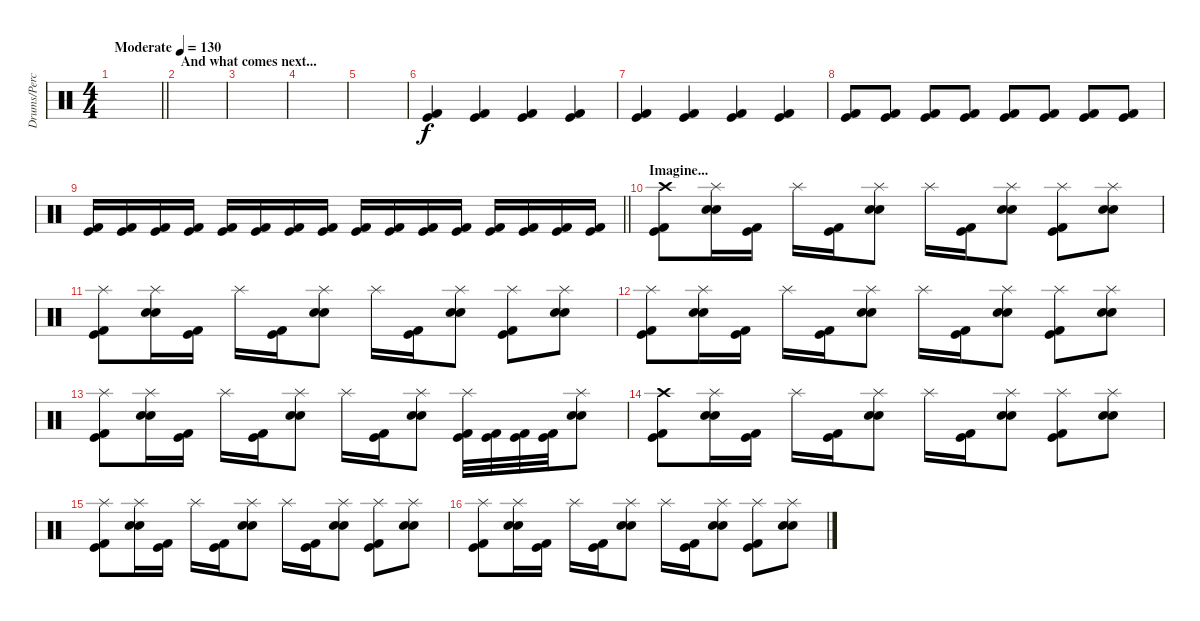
\track ("Drums/Percussion" "Drums/Perc") {instrument percussion}
\staff {score}
\articulation defaults
\ts (4 4)
\tempo (130 "Moderate")
\clef neutral
\barLineRight lightlight
\ks c
|
\section ("" "And what comes next...")
|
|
|
|
("Kick (hit)" "Kick (hit) 2").4 ("Kick (hit)" "Kick (hit) 2").4 ("Kick (hit)" "Kick (hit) 2").4 ("Kick (hit)" "Kick (hit) 2").4 |
("Kick (hit)" "Kick (hit) 2").4 ("Kick (hit)" "Kick (hit) 2").4 ("Kick (hit)" "Kick (hit) 2").4 ("Kick (hit)" "Kick (hit) 2").4 |
("Kick (hit)" "Kick (hit) 2").8 ("Kick (hit)" "Kick (hit) 2").8 ("Kick (hit)" "Kick (hit) 2").8 ("Kick (hit)" "Kick (hit) 2").8 ("Kick (hit)" "Kick (hit) 2").8 ("Kick (hit)" "Kick (hit) 2").8 ("Kick (hit)" "Kick (hit) 2").8 ("Kick (hit)" "Kick (hit) 2").8 |
\barLineRight lightlight
("Kick (hit)" "Kick (hit) 2").16 ("Kick (hit)" "Kick (hit) 2").16 ("Kick (hit)" "Kick (hit) 2").16 ("Kick (hit)" "Kick (hit) 2").16 ("Kick (hit)" "Kick (hit) 2").16 ("Kick (hit)" "Kick (hit) 2").16 ("Kick (hit)" "Kick (hit) 2").16 ("Kick (hit)" "Kick (hit) 2").16 ("Kick (hit)" "Kick (hit) 2").16 ("Kick (hit)" "Kick (hit) 2").16 ("Kick (hit)" "Kick (hit) 2").16 ("Kick (hit)" "Kick (hit) 2").16 ("Kick (hit)" "Kick (hit) 2").16 ("Kick (hit)" "Kick (hit) 2").16 ("Kick (hit)" "Kick (hit) 2").16 ("Kick (hit)" "Kick (hit) 2").16 |
\section ("" "Imagine...")
("Crash high (hit)" "Kick (hit)" "Kick (hit) 2").8 ("Splash (hit)" "Electric Snare (hit)" "Snare (hit) 2").16 ("Kick (hit)" "Kick (hit) 2").16 "Splash (hit)".16 ("Kick (hit)" "Kick (hit) 2").16 ("Splash (hit)" "Electric Snare (hit)" "Snare (hit) 2").8 "Splash (hit)".16 ("Kick (hit)" "Kick (hit) 2").16 ("Splash (hit)" "Electric Snare (hit)" "Snare (hit) 2").8 ("Splash (hit)" "Kick (hit)" "Kick (hit) 2").8 ("Splash (hit)" "Electric Snare (hit)" "Snare (hit) 2").8 |
("Splash (hit)" "Kick (hit)" "Kick (hit) 2").8 ("Splash (hit)" "Electric Snare (hit)" "Snare (hit) 2").16 ("Kick (hit)" "Kick (hit) 2").16 "Splash (hit)".16 ("Kick (hit)" "Kick (hit) 2").16 ("Splash (hit)" "Electric Snare (hit)" "Snare (hit) 2").8 "Splash (hit)".16 ("Kick (hit)" "Kick (hit) 2").16 ("Splash (hit)" "Electric Snare (hit)" "Snare (hit) 2").8 ("Splash (hit)" "Kick (hit)" "Kick (hit) 2").8 ("Splash (hit)" "Electric Snare (hit)" "Snare (hit) 2").8 |
("Splash (hit)" "Kick (hit)" "Kick (hit) 2").8 ("Splash (hit)" "Electric Snare (hit)" "Snare (hit) 2").16 ("Kick (hit)" "Kick (hit) 2").16 "Splash (hit)".16 ("Kick (hit)" "Kick (hit) 2").16 ("Splash (hit)" "Electric Snare (hit)" "Snare (hit) 2").8 "Splash (hit)".16 ("Kick (hit)" "Kick (hit) 2").16 ("Splash (hit)" "Electric Snare (hit)" "Snare (hit) 2").8 ("Splash (hit)" "Kick (hit)" "Kick (hit) 2").8 ("Splash (hit)" "Electric Snare (hit)" "Snare (hit) 2").8 |
("Splash (hit)" "Kick (hit)" "Kick (hit) 2").8 ("Splash (hit)" "Electric Snare (hit)" "Snare (hit) 2").16 ("Kick (hit)" "Kick (hit) 2").16 "Splash (hit)".16 ("Kick (hit)" "Kick (hit) 2").16 ("Splash (hit)" "Electric Snare (hit)" "Snare (hit) 2").8 "Splash (hit)".16 ("Kick (hit)" "Kick (hit) 2").16 ("Splash (hit)" "Electric Snare (hit)" "Snare (hit) 2").8 ("Splash (hit)" "Kick (hit)" "Kick (hit) 2").32 ("Kick (hit)" "Kick (hit) 2").32 ("Kick (hit)" "Kick (hit) 2").32 ("Kick (hit)" "Kick (hit) 2").32 ("Splash (hit)" "Electric Snare (hit)" "Snare (hit) 2").8 |
("Crash high (hit)" "Kick (hit)" "Kick (hit) 2").8 ("Splash (hit)" "Electric Snare (hit)" "Snare (hit) 2").16 ("Kick (hit)" "Kick (hit) 2").16 "Splash (hit)".16 ("Kick (hit)" "Kick (hit) 2").16 ("Splash (hit)" "Electric Snare (hit)" "Snare (hit) 2").8 "Splash (hit)".16 ("Kick (hit)" "Kick (hit) 2").16 ("Splash (hit)" "Electric Snare (hit)" "Snare (hit) 2").8 ("Splash (hit)" "Kick (hit)" "Kick (hit) 2").8 ("Splash (hit)" "Electric Snare (hit)" "Snare (hit) 2").8 |
("Splash (hit)" "Kick (hit)" "Kick (hit) 2").8 ("Splash (hit)" "Electric Snare (hit)" "Snare (hit) 2").16 ("Kick (hit)" "Kick (hit) 2").16 "Splash (hit)".16 ("Kick (hit)" "Kick (hit) 2").16 ("Splash (hit)" "Electric Snare (hit)" "Snare (hit) 2").8 "Splash (hit)".16 ("Kick (hit)" "Kick (hit) 2").16 ("Splash (hit)" "Electric Snare (hit)" "Snare (hit) 2").8 ("Splash (hit)" "Kick (hit)" "Kick (hit) 2").8 ("Splash (hit)" "Electric Snare (hit)" "Snare (hit) 2").8 |
("Splash (hit)" "Kick (hit)" "Kick (hit) 2").8 ("Splash (hit)" "Electric Snare (hit)" "Snare (hit) 2").16 ("Kick (hit)" "Kick (hit) 2").16 "Splash (hit)".16 ("Kick (hit)" "Kick (hit) 2").16 ("Splash (hit)" "Electric Snare (hit)" "Snare (hit) 2").8 "Splash (hit)".16 ("Kick (hit)" "Kick (hit) 2").16 ("Splash (hit)" "Electric Snare (hit)" "Snare (hit) 2").8 ("Splash (hit)" "Kick (hit)" "Kick (hit) 2").8 ("Splash (hit)" "Electric Snare (hit)" "Snare (hit) 2").8
